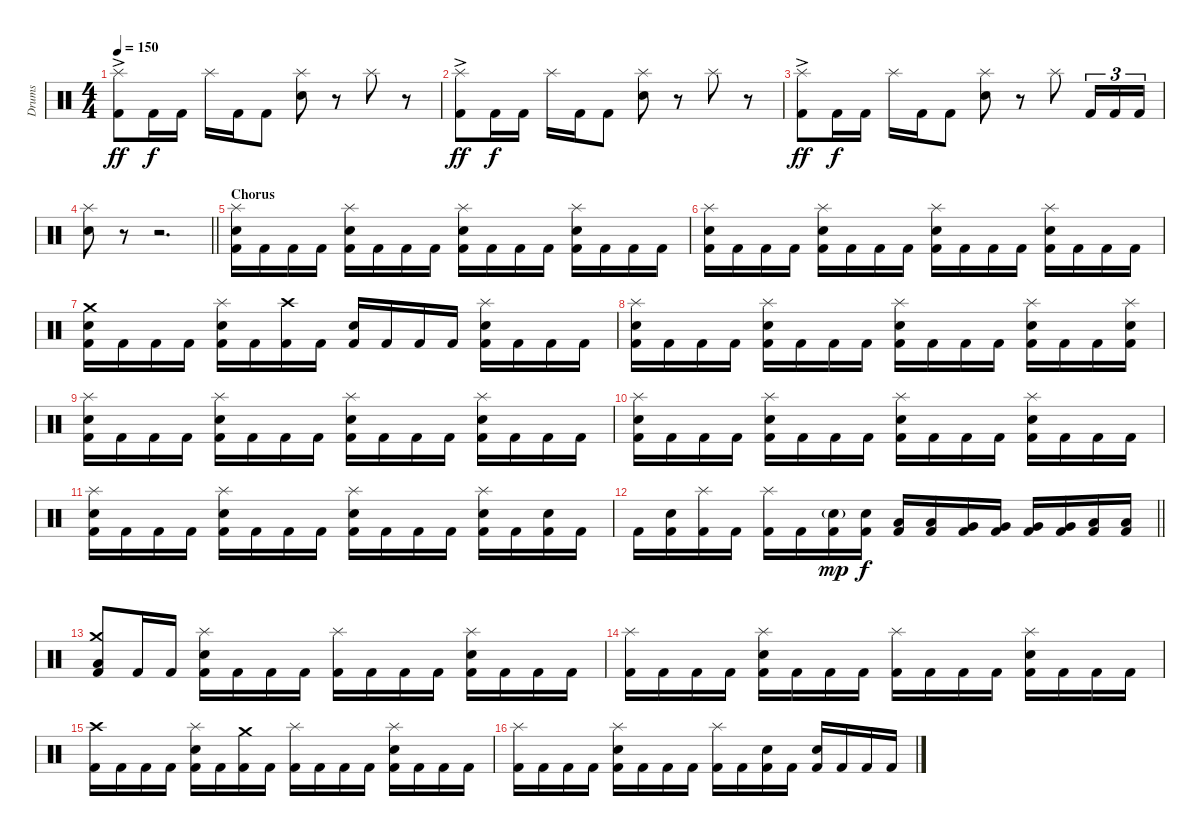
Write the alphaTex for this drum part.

\track ("Drums" "Drums") {instrument percussion}
\staff {score}
\articulation defaults
\ts (4 4)
\tempo 150
\clef neutral
\ks c
("Splash (hit)"{ac} "Kick (hit) 2").8{dy ff} "Kick (hit) 2".16{dy f} "Kick (hit) 2".16 "Splash (hit)".16 "Kick (hit) 2".16 "Kick (hit) 2".8 ("Splash (hit)" "Electric Snare (hit)").8 r.8 "Splash (hit)".8 r.8 |
("Splash (hit)"{ac} "Kick (hit) 2").8{dy ff} "Kick (hit) 2".16{dy f} "Kick (hit) 2".16 "Splash (hit)".16 "Kick (hit) 2".16 "Kick (hit) 2".8 ("Splash (hit)" "Electric Snare (hit)").8 r.8 "Splash (hit)".8 r.8 |
("Splash (hit)"{ac} "Kick (hit) 2").8{dy ff} "Kick (hit) 2".16{dy f} "Kick (hit) 2".16 "Splash (hit)".16 "Kick (hit) 2".16 "Kick (hit) 2".8 ("Splash (hit)" "Electric Snare (hit)").8 r.8 "Splash (hit)".8 "Kick (hit) 2".16{tu (3 2)} "Kick (hit) 2".16{tu (3 2)} "Kick (hit) 2".16{tu (3 2)} |
\barLineRight lightlight
("Splash (hit)" "Electric Snare (hit)").8 r.8 r.2{d} |
\section ("" "Chorus")
("Splash (hit)" "Electric Snare (hit)" "Kick (hit) 2").16 "Kick (hit) 2".16 "Kick (hit) 2".16 "Kick (hit) 2".16 ("Splash (hit)" "Electric Snare (hit)" "Kick (hit) 2").16 "Kick (hit) 2".16 "Kick (hit) 2".16 "Kick (hit) 2".16 ("Splash (hit)" "Electric Snare (hit)" "Kick (hit) 2").16 "Kick (hit) 2".16 "Kick (hit) 2".16 "Kick (hit) 2".16 ("Splash (hit)" "Electric Snare (hit)" "Kick (hit) 2").16 "Kick (hit) 2".16 "Kick (hit) 2".16 "Kick (hit) 2".16 |
("Splash (hit)" "Electric Snare (hit)" "Kick (hit) 2").16 "Kick (hit) 2".16 "Kick (hit) 2".16 "Kick (hit) 2".16 ("Splash (hit)" "Electric Snare (hit)" "Kick (hit) 2").16 "Kick (hit) 2".16 "Kick (hit) 2".16 "Kick (hit) 2".16 ("Splash (hit)" "Electric Snare (hit)" "Kick (hit) 2").16 "Kick (hit) 2".16 "Kick (hit) 2".16 "Kick (hit) 2".16 ("Splash (hit)" "Electric Snare (hit)" "Kick (hit) 2").16 "Kick (hit) 2".16 "Kick (hit) 2".16 "Kick (hit) 2".16 |
("Crash medium (hit)" "Electric Snare (hit)" "Kick (hit) 2").16 "Kick (hit) 2".16 "Kick (hit) 2".16 "Kick (hit) 2".16 ("Splash (hit)" "Electric Snare (hit)" "Kick (hit) 2").16 "Kick (hit) 2".16 ("Crash high (hit)" "Kick (hit) 2").16 "Kick (hit) 2".16 ("Electric Snare (hit)" "Kick (hit) 2").16 "Kick (hit) 2".16 "Kick (hit) 2".16 "Kick (hit) 2".16 ("Splash (hit)" "Electric Snare (hit)" "Kick (hit) 2").16 "Kick (hit) 2".16 "Kick (hit) 2".16 "Kick (hit) 2".16 |
("Splash (hit)" "Electric Snare (hit)" "Kick (hit) 2").16 "Kick (hit) 2".16 "Kick (hit) 2".16 "Kick (hit) 2".16 ("Splash (hit)" "Electric Snare (hit)" "Kick (hit) 2").16 "Kick (hit) 2".16 "Kick (hit) 2".16 "Kick (hit) 2".16 ("Splash (hit)" "Electric Snare (hit)" "Kick (hit) 2").16 "Kick (hit) 2".16 "Kick (hit) 2".16 "Kick (hit) 2".16 ("Splash (hit)" "Electric Snare (hit)" "Kick (hit) 2").16 "Kick (hit) 2".16 "Kick (hit) 2".16 ("Splash (hit)" "Electric Snare (hit)" "Kick (hit) 2").16 |
("Splash (hit)" "Electric Snare (hit)" "Kick (hit) 2").16 "Kick (hit) 2".16 "Kick (hit) 2".16 "Kick (hit) 2".16 ("Splash (hit)" "Electric Snare (hit)" "Kick (hit) 2").16 "Kick (hit) 2".16 "Kick (hit) 2".16 "Kick (hit) 2".16 ("Splash (hit)" "Electric Snare (hit)" "Kick (hit) 2").16 "Kick (hit) 2".16 "Kick (hit) 2".16 "Kick (hit) 2".16 ("Splash (hit)" "Electric Snare (hit)" "Kick (hit) 2").16 "Kick (hit) 2".16 "Kick (hit) 2".16 "Kick (hit) 2".16 |
("Splash (hit)" "Electric Snare (hit)" "Kick (hit) 2").16 "Kick (hit) 2".16 "Kick (hit) 2".16 "Kick (hit) 2".16 ("Splash (hit)" "Electric Snare (hit)" "Kick (hit) 2").16 "Kick (hit) 2".16 "Kick (hit) 2".16 "Kick (hit) 2".16 ("Splash (hit)" "Electric Snare (hit)" "Kick (hit) 2").16 "Kick (hit) 2".16 "Kick (hit) 2".16 "Kick (hit) 2".16 ("Splash (hit)" "Electric Snare (hit)" "Kick (hit) 2").16 "Kick (hit) 2".16 "Kick (hit) 2".16 "Kick (hit) 2".16 |
("Splash (hit)" "Electric Snare (hit)" "Kick (hit) 2").16 "Kick (hit) 2".16 "Kick (hit) 2".16 "Kick (hit) 2".16 ("Splash (hit)" "Electric Snare (hit)" "Kick (hit) 2").16 "Kick (hit) 2".16 "Kick (hit) 2".16 "Kick (hit) 2".16 ("Splash (hit)" "Electric Snare (hit)" "Kick (hit) 2").16 "Kick (hit) 2".16 "Kick (hit) 2".16 "Kick (hit) 2".16 ("Splash (hit)" "Electric Snare (hit)" "Kick (hit) 2").16 "Kick (hit) 2".16 ("Electric Snare (hit)" "Kick (hit) 2").16 "Kick (hit) 2".16 |
\barLineRight lightlight "Kick (hit) 2".16
("Electric Snare (hit)" "Kick (hit) 2").16 ("Splash (hit)" "Kick (hit) 2").16 "Kick (hit) 2".16 ("Splash (hit)" "Kick (hit) 2").16 "Kick (hit) 2".16 ("Electric Snare (hit)"{g} "Kick (hit) 2").16{dy mp} ("Electric Snare (hit)" "Kick (hit) 2").16{dy f} ("Low Tom (hit)" "Kick (hit) 2").16 ("Low Tom (hit)" "Kick (hit) 2").16 ("Very Low Tom (hit)" "Kick (hit) 2").16 ("Very Low Tom (hit)" "Kick (hit) 2").16 ("Very Low Tom (hit)" "Kick (hit) 2").16 ("Very Low Tom (hit)" "Kick (hit) 2").16 ("Low Floor Tom (hit)" "Kick (hit) 2").16 ("Low Floor Tom (hit)" "Kick (hit) 2").16 |
\section ("" "")
("Crash medium (hit)" "Low Floor Tom (hit)" "Kick (hit) 2").8 "Kick (hit) 2".16 "Kick (hit) 2".16 ("Splash (hit)" "Electric Snare (hit)" "Kick (hit) 2").16 "Kick (hit) 2".16 "Kick (hit) 2".16 "Kick (hit) 2".16 ("Splash (hit)" "Kick (hit) 2").16 "Kick (hit) 2".16 "Kick (hit) 2".16 "Kick (hit) 2".16 ("Splash (hit)" "Electric Snare (hit)" "Kick (hit) 2").16 "Kick (hit) 2".16 "Kick (hit) 2".16 "Kick (hit) 2".16 |
("Splash (hit)" "Kick (hit) 2").16 "Kick (hit) 2".16 "Kick (hit) 2".16 "Kick (hit) 2".16 ("Splash (hit)" "Electric Snare (hit)" "Kick (hit) 2").16 "Kick (hit) 2".16 "Kick (hit) 2".16 "Kick (hit) 2".16 ("Splash (hit)" "Kick (hit) 2").16 "Kick (hit) 2".16 "Kick (hit) 2".16 "Kick (hit) 2".16 ("Splash (hit)" "Electric Snare (hit)" "Kick (hit) 2").16 "Kick (hit) 2".16 "Kick (hit) 2".16 "Kick (hit) 2".16 |
("Crash high (hit)" "Kick (hit) 2").16 "Kick (hit) 2".16 "Kick (hit) 2".16 "Kick (hit) 2".16 ("Splash (hit)" "Electric Snare (hit)" "Kick (hit) 2").16 "Kick (hit) 2".16 ("Crash medium (hit)" "Kick (hit) 2").16 "Kick (hit) 2".16 ("Splash (hit)" "Kick (hit) 2").16 "Kick (hit) 2".16 "Kick (hit) 2".16 "Kick (hit) 2".16 ("Splash (hit)" "Electric Snare (hit)" "Kick (hit) 2").16 "Kick (hit) 2".16 "Kick (hit) 2".16 "Kick (hit) 2".16 |
("Splash (hit)" "Kick (hit) 2").16 "Kick (hit) 2".16 "Kick (hit) 2".16 "Kick (hit) 2".16 ("Splash (hit)" "Electric Snare (hit)" "Kick (hit) 2").16 "Kick (hit) 2".16 "Kick (hit) 2".16 "Kick (hit) 2".16 ("Splash (hit)" "Kick (hit) 2").16 "Kick (hit) 2".16 ("Electric Snare (hit)" "Kick (hit) 2").16 "Kick (hit) 2".16 ("Electric Snare (hit)" "Kick (hit) 2").16 "Kick (hit) 2".16 "Kick (hit) 2".16 "Kick (hit) 2".16
